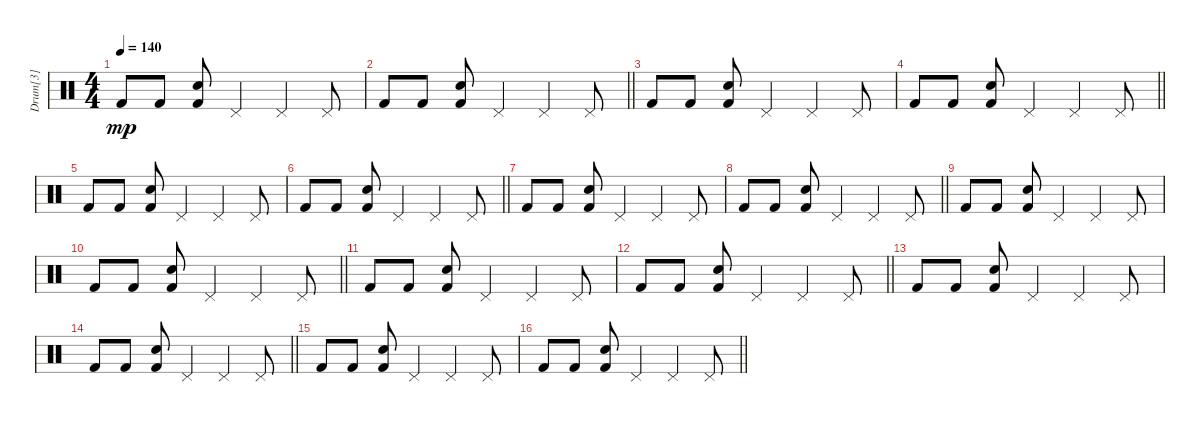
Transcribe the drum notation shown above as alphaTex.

\track ("Drum[3]" "Drum[3]") {instrument percussion}
\staff {score}
\articulation defaults
\ts (4 4)
\tempo 140
\clef neutral
\ks c "Kick (hit) 2".8{dy mp} "Kick (hit) 2".8
("Snare (hit) 2" "Kick (hit) 2").8 "Pedal Hi-Hat (hit)".4 "Pedal Hi-Hat (hit)".4 "Pedal Hi-Hat (hit)".8 |
\barLineRight lightlight "Kick (hit) 2".8 "Kick (hit) 2".8
("Snare (hit) 2" "Kick (hit) 2").8 "Pedal Hi-Hat (hit)".4 "Pedal Hi-Hat (hit)".4 "Pedal Hi-Hat (hit)".8 |
"Kick (hit) 2".8 "Kick (hit) 2".8 ("Snare (hit) 2" "Kick (hit) 2").8 "Pedal Hi-Hat (hit)".4 "Pedal Hi-Hat (hit)".4 "Pedal Hi-Hat (hit)".8 |
\barLineRight lightlight "Kick (hit) 2".8 "Kick (hit) 2".8
("Snare (hit) 2" "Kick (hit) 2").8 "Pedal Hi-Hat (hit)".4 "Pedal Hi-Hat (hit)".4 "Pedal Hi-Hat (hit)".8 |
"Kick (hit) 2".8 "Kick (hit) 2".8 ("Snare (hit) 2" "Kick (hit) 2").8 "Pedal Hi-Hat (hit)".4 "Pedal Hi-Hat (hit)".4 "Pedal Hi-Hat (hit)".8 |
\barLineRight lightlight "Kick (hit) 2".8 "Kick (hit) 2".8
("Snare (hit) 2" "Kick (hit) 2").8 "Pedal Hi-Hat (hit)".4 "Pedal Hi-Hat (hit)".4 "Pedal Hi-Hat (hit)".8 |
"Kick (hit) 2".8 "Kick (hit) 2".8 ("Snare (hit) 2" "Kick (hit) 2").8 "Pedal Hi-Hat (hit)".4 "Pedal Hi-Hat (hit)".4 "Pedal Hi-Hat (hit)".8 |
\barLineRight lightlight "Kick (hit) 2".8 "Kick (hit) 2".8
("Snare (hit) 2" "Kick (hit) 2").8 "Pedal Hi-Hat (hit)".4 "Pedal Hi-Hat (hit)".4 "Pedal Hi-Hat (hit)".8 |
"Kick (hit) 2".8 "Kick (hit) 2".8 ("Snare (hit) 2" "Kick (hit) 2").8 "Pedal Hi-Hat (hit)".4 "Pedal Hi-Hat (hit)".4 "Pedal Hi-Hat (hit)".8 |
\barLineRight lightlight "Kick (hit) 2".8 "Kick (hit) 2".8
("Snare (hit) 2" "Kick (hit) 2").8 "Pedal Hi-Hat (hit)".4 "Pedal Hi-Hat (hit)".4 "Pedal Hi-Hat (hit)".8 |
"Kick (hit) 2".8 "Kick (hit) 2".8 ("Snare (hit) 2" "Kick (hit) 2").8 "Pedal Hi-Hat (hit)".4 "Pedal Hi-Hat (hit)".4 "Pedal Hi-Hat (hit)".8 |
\barLineRight lightlight "Kick (hit) 2".8 "Kick (hit) 2".8
("Snare (hit) 2" "Kick (hit) 2").8 "Pedal Hi-Hat (hit)".4 "Pedal Hi-Hat (hit)".4 "Pedal Hi-Hat (hit)".8 |
"Kick (hit) 2".8 "Kick (hit) 2".8 ("Snare (hit) 2" "Kick (hit) 2").8 "Pedal Hi-Hat (hit)".4 "Pedal Hi-Hat (hit)".4 "Pedal Hi-Hat (hit)".8 |
\barLineRight lightlight "Kick (hit) 2".8 "Kick (hit) 2".8
("Snare (hit) 2" "Kick (hit) 2").8 "Pedal Hi-Hat (hit)".4 "Pedal Hi-Hat (hit)".4 "Pedal Hi-Hat (hit)".8 |
"Kick (hit) 2".8 "Kick (hit) 2".8 ("Snare (hit) 2" "Kick (hit) 2").8 "Pedal Hi-Hat (hit)".4 "Pedal Hi-Hat (hit)".4 "Pedal Hi-Hat (hit)".8 |
\barLineRight lightlight "Kick (hit) 2".8 "Kick (hit) 2".8
("Snare (hit) 2" "Kick (hit) 2").8 "Pedal Hi-Hat (hit)".4 "Pedal Hi-Hat (hit)".4 "Pedal Hi-Hat (hit)".8
